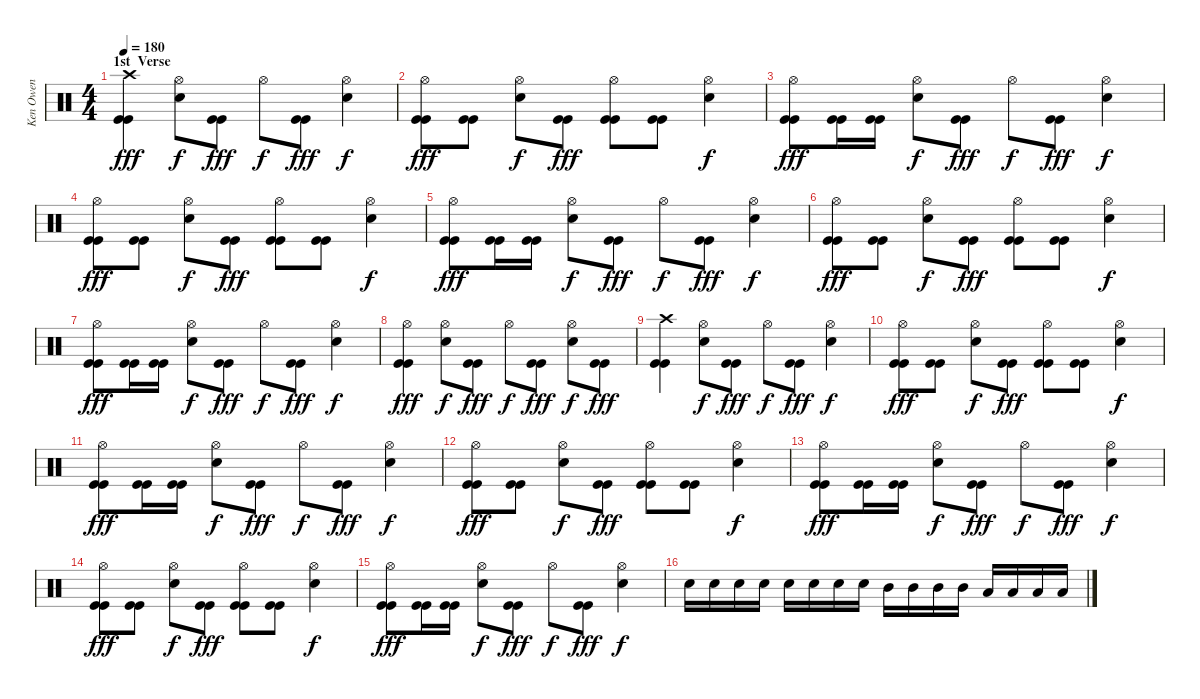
\track ("Ken Owen" "Ken Owen") {instrument percussion}
\staff {score}
\articulation defaults
\ts (4 4)
\section ("" "1st  Verse")
\tempo 180
\clef neutral
\ks c
("Crash high (hit)" "Kick (hit)" "Kick (hit)").4{dy fff} ("Hi-Hat (open)" "Snare (hit) 2").8{dy f} ("Kick (hit)" "Kick (hit)").8{dy fff} "Hi-Hat (open)".8{dy f} ("Kick (hit)" "Kick (hit)").8{dy fff} ("Hi-Hat (open)" "Snare (hit) 2").4{dy f} |
("Hi-Hat (open)" "Kick (hit)" "Kick (hit)").8{dy fff} ("Kick (hit)" "Kick (hit)").8 ("Hi-Hat (open)" "Snare (hit) 2").8{dy f} ("Kick (hit)" "Kick (hit)").8{dy fff} ("Hi-Hat (open)" "Kick (hit)" "Kick (hit)").8 ("Kick (hit)" "Kick (hit)").8 ("Hi-Hat (open)" "Snare (hit) 2").4{dy f} |
("Hi-Hat (open)" "Kick (hit)" "Kick (hit)").8{dy fff} ("Kick (hit)" "Kick (hit)").16 ("Kick (hit)" "Kick (hit)").16 ("Hi-Hat (open)" "Snare (hit) 2").8{dy f} ("Kick (hit)" "Kick (hit)").8{dy fff} "Hi-Hat (open)".8{dy f} ("Kick (hit)" "Kick (hit)").8{dy fff} ("Hi-Hat (open)" "Snare (hit) 2").4{dy f} |
("Hi-Hat (open)" "Kick (hit)" "Kick (hit)").8{dy fff} ("Kick (hit)" "Kick (hit)").8 ("Hi-Hat (open)" "Snare (hit) 2").8{dy f} ("Kick (hit)" "Kick (hit)").8{dy fff} ("Hi-Hat (open)" "Kick (hit)" "Kick (hit)").8 ("Kick (hit)" "Kick (hit)").8 ("Hi-Hat (open)" "Snare (hit) 2").4{dy f} |
("Hi-Hat (open)" "Kick (hit)" "Kick (hit)").8{dy fff} ("Kick (hit)" "Kick (hit)").16 ("Kick (hit)" "Kick (hit)").16 ("Hi-Hat (open)" "Snare (hit) 2").8{dy f} ("Kick (hit)" "Kick (hit)").8{dy fff} "Hi-Hat (open)".8{dy f} ("Kick (hit)" "Kick (hit)").8{dy fff} ("Hi-Hat (open)" "Snare (hit) 2").4{dy f} |
("Hi-Hat (open)" "Kick (hit)" "Kick (hit)").8{dy fff} ("Kick (hit)" "Kick (hit)").8 ("Hi-Hat (open)" "Snare (hit) 2").8{dy f} ("Kick (hit)" "Kick (hit)").8{dy fff} ("Hi-Hat (open)" "Kick (hit)" "Kick (hit)").8 ("Kick (hit)" "Kick (hit)").8 ("Hi-Hat (open)" "Snare (hit) 2").4{dy f} |
("Hi-Hat (open)" "Kick (hit)" "Kick (hit)").8{dy fff} ("Kick (hit)" "Kick (hit)").16 ("Kick (hit)" "Kick (hit)").16 ("Hi-Hat (open)" "Snare (hit) 2").8{dy f} ("Kick (hit)" "Kick (hit)").8{dy fff} "Hi-Hat (open)".8{dy f} ("Kick (hit)" "Kick (hit)").8{dy fff} ("Hi-Hat (open)" "Snare (hit) 2").4{dy f} |
("Hi-Hat (open)" "Kick (hit)" "Kick (hit)").4{dy fff} ("Hi-Hat (open)" "Snare (hit) 2").8{dy f} ("Kick (hit)" "Kick (hit)").8{dy fff} "Hi-Hat (open)".8{dy f} ("Kick (hit)" "Kick (hit)").8{dy fff} ("Hi-Hat (open)" "Snare (hit) 2").8{dy f} ("Kick (hit)" "Kick (hit)").8{dy fff} |
("Crash high (hit)" "Kick (hit)" "Kick (hit)").4 ("Hi-Hat (open)" "Snare (hit) 2").8{dy f} ("Kick (hit)" "Kick (hit)").8{dy fff} "Hi-Hat (open)".8{dy f} ("Kick (hit)" "Kick (hit)").8{dy fff} ("Hi-Hat (open)" "Snare (hit) 2").4{dy f} |
("Hi-Hat (open)" "Kick (hit)" "Kick (hit)").8{dy fff} ("Kick (hit)" "Kick (hit)").8 ("Hi-Hat (open)" "Snare (hit) 2").8{dy f} ("Kick (hit)" "Kick (hit)").8{dy fff} ("Hi-Hat (open)" "Kick (hit)" "Kick (hit)").8 ("Kick (hit)" "Kick (hit)").8 ("Hi-Hat (open)" "Snare (hit) 2").4{dy f} |
("Hi-Hat (open)" "Kick (hit)" "Kick (hit)").8{dy fff} ("Kick (hit)" "Kick (hit)").16 ("Kick (hit)" "Kick (hit)").16 ("Hi-Hat (open)" "Snare (hit) 2").8{dy f} ("Kick (hit)" "Kick (hit)").8{dy fff} "Hi-Hat (open)".8{dy f} ("Kick (hit)" "Kick (hit)").8{dy fff} ("Hi-Hat (open)" "Snare (hit) 2").4{dy f} |
("Hi-Hat (open)" "Kick (hit)" "Kick (hit)").8{dy fff} ("Kick (hit)" "Kick (hit)").8 ("Hi-Hat (open)" "Snare (hit) 2").8{dy f} ("Kick (hit)" "Kick (hit)").8{dy fff} ("Hi-Hat (open)" "Kick (hit)" "Kick (hit)").8 ("Kick (hit)" "Kick (hit)").8 ("Hi-Hat (open)" "Snare (hit) 2").4{dy f} |
("Hi-Hat (open)" "Kick (hit)" "Kick (hit)").8{dy fff} ("Kick (hit)" "Kick (hit)").16 ("Kick (hit)" "Kick (hit)").16 ("Hi-Hat (open)" "Snare (hit) 2").8{dy f} ("Kick (hit)" "Kick (hit)").8{dy fff} "Hi-Hat (open)".8{dy f} ("Kick (hit)" "Kick (hit)").8{dy fff} ("Hi-Hat (open)" "Snare (hit) 2").4{dy f} |
("Hi-Hat (open)" "Kick (hit)" "Kick (hit)").8{dy fff} ("Kick (hit)" "Kick (hit)").8 ("Hi-Hat (open)" "Snare (hit) 2").8{dy f} ("Kick (hit)" "Kick (hit)").8{dy fff} ("Hi-Hat (open)" "Kick (hit)" "Kick (hit)").8 ("Kick (hit)" "Kick (hit)").8 ("Hi-Hat (open)" "Snare (hit) 2").4{dy f} |
("Hi-Hat (open)" "Kick (hit)" "Kick (hit)").8{dy fff} ("Kick (hit)" "Kick (hit)").16 ("Kick (hit)" "Kick (hit)").16 ("Hi-Hat (open)" "Snare (hit) 2").8{dy f} ("Kick (hit)" "Kick (hit)").8{dy fff} "Hi-Hat (open)".8{dy f} ("Kick (hit)" "Kick (hit)").8{dy fff} ("Hi-Hat (open)" "Snare (hit) 2").4{dy f} |
"Snare (hit) 2".16 "Snare (hit) 2".16 "Snare (hit) 2".16 "Snare (hit) 2".16 "Snare (hit) 2".16 "Snare (hit) 2".16 "Snare (hit) 2".16 "Snare (hit) 2".16 "Mid Tom (hit)".16 "Mid Tom (hit)".16 "Mid Tom (hit)".16 "Mid Tom (hit)".16 "Low Tom (hit)".16 "Low Tom (hit)".16 "Low Tom (hit)".16 "Low Tom (hit)".16
